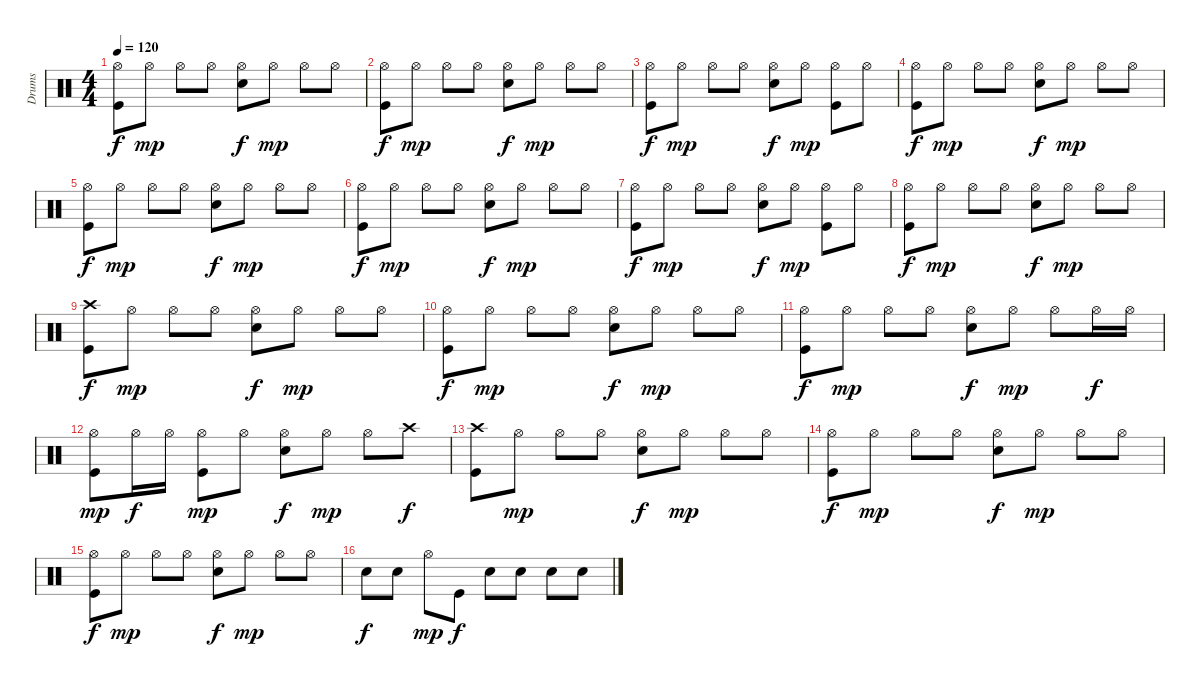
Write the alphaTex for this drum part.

\track ("Drums" "Drums") {instrument percussion}
\staff {score}
\articulation defaults
\ts (4 4)
\tempo 120
\clef neutral
\ks c
("Hi-Hat (open)" "Kick (hit)").8{dy f} "Hi-Hat (open)".8{dy mp} "Hi-Hat (open)".8 "Hi-Hat (open)".8 ("Hi-Hat (open)" "Snare (hit) 2").8{dy f} "Hi-Hat (open)".8{dy mp} "Hi-Hat (open)".8 "Hi-Hat (open)".8 |
("Hi-Hat (open)" "Kick (hit)").8{dy f} "Hi-Hat (open)".8{dy mp} "Hi-Hat (open)".8 "Hi-Hat (open)".8 ("Hi-Hat (open)" "Snare (hit) 2").8{dy f} "Hi-Hat (open)".8{dy mp} "Hi-Hat (open)".8 "Hi-Hat (open)".8 |
("Kick (hit)" "Hi-Hat (open)").8{dy f} "Hi-Hat (open)".8{dy mp} "Hi-Hat (open)".8 "Hi-Hat (open)".8 ("Hi-Hat (open)" "Snare (hit) 2").8{dy f} "Hi-Hat (open)".8{dy mp} ("Hi-Hat (open)" "Kick (hit)").8 "Hi-Hat (open)".8 |
("Kick (hit)" "Hi-Hat (open)").8{dy f} "Hi-Hat (open)".8{dy mp} "Hi-Hat (open)".8 "Hi-Hat (open)".8 ("Hi-Hat (open)" "Snare (hit) 2").8{dy f} "Hi-Hat (open)".8{dy mp} "Hi-Hat (open)".8 "Hi-Hat (open)".8 |
("Kick (hit)" "Hi-Hat (open)").8{dy f} "Hi-Hat (open)".8{dy mp} "Hi-Hat (open)".8 "Hi-Hat (open)".8 ("Hi-Hat (open)" "Snare (hit) 2").8{dy f} "Hi-Hat (open)".8{dy mp} "Hi-Hat (open)".8 "Hi-Hat (open)".8 |
("Kick (hit)" "Hi-Hat (open)").8{dy f} "Hi-Hat (open)".8{dy mp} "Hi-Hat (open)".8 "Hi-Hat (open)".8 ("Hi-Hat (open)" "Snare (hit) 2").8{dy f} "Hi-Hat (open)".8{dy mp} "Hi-Hat (open)".8 "Hi-Hat (open)".8 |
("Kick (hit)" "Hi-Hat (open)").8{dy f} "Hi-Hat (open)".8{dy mp} "Hi-Hat (open)".8 "Hi-Hat (open)".8 ("Hi-Hat (open)" "Snare (hit) 2").8{dy f} "Hi-Hat (open)".8{dy mp} ("Hi-Hat (open)" "Kick (hit)").8 "Hi-Hat (open)".8 |
("Kick (hit)" "Hi-Hat (open)").8{dy f} "Hi-Hat (open)".8{dy mp} "Hi-Hat (open)".8 "Hi-Hat (open)".8 ("Hi-Hat (open)" "Snare (hit) 2").8{dy f} "Hi-Hat (open)".8{dy mp} "Hi-Hat (open)".8 "Hi-Hat (open)".8 |
("Kick (hit)" "Crash high (hit)").8{dy f} "Hi-Hat (open)".8{dy mp} "Hi-Hat (open)".8 "Hi-Hat (open)".8 ("Hi-Hat (open)" "Snare (hit) 2").8{dy f} "Hi-Hat (open)".8{dy mp} "Hi-Hat (open)".8 "Hi-Hat (open)".8 |
("Kick (hit)" "Hi-Hat (open)").8{dy f} "Hi-Hat (open)".8{dy mp} "Hi-Hat (open)".8 "Hi-Hat (open)".8 ("Hi-Hat (open)" "Snare (hit) 2").8{dy f} "Hi-Hat (open)".8{dy mp} "Hi-Hat (open)".8 "Hi-Hat (open)".8 |
("Kick (hit)" "Hi-Hat (open)").8{dy f} "Hi-Hat (open)".8{dy mp} "Hi-Hat (open)".8 "Hi-Hat (open)".8 ("Hi-Hat (open)" "Snare (hit) 2").8{dy f} "Hi-Hat (open)".8{dy mp} "Hi-Hat (open)".8 "Hi-Hat (open)".16{dy f} "Hi-Hat (open)".16 |
("Kick (hit)" "Hi-Hat (open)").8{dy mp} "Hi-Hat (open)".16{dy f} "Hi-Hat (open)".16 ("Kick (hit)" "Hi-Hat (open)").8{dy mp} "Hi-Hat (open)".8 ("Hi-Hat (open)" "Snare (hit) 2").8{dy f} "Hi-Hat (open)".8{dy mp} "Hi-Hat (open)".8 "Crash high (hit)".8{dy f} |
("Kick (hit)" "Crash high (hit)").8 "Hi-Hat (open)".8{dy mp} "Hi-Hat (open)".8 "Hi-Hat (open)".8 ("Hi-Hat (open)" "Snare (hit) 2").8{dy f} "Hi-Hat (open)".8{dy mp} "Hi-Hat (open)".8 "Hi-Hat (open)".8 |
("Kick (hit)" "Hi-Hat (open)").8{dy f} "Hi-Hat (open)".8{dy mp} "Hi-Hat (open)".8 "Hi-Hat (open)".8 ("Hi-Hat (open)" "Snare (hit) 2").8{dy f} "Hi-Hat (open)".8{dy mp} "Hi-Hat (open)".8 "Hi-Hat (open)".8 |
("Kick (hit)" "Hi-Hat (open)").8{dy f} "Hi-Hat (open)".8{dy mp} "Hi-Hat (open)".8 "Hi-Hat (open)".8 ("Hi-Hat (open)" "Snare (hit) 2").8{dy f} "Hi-Hat (open)".8{dy mp} "Hi-Hat (open)".8 "Hi-Hat (open)".8 |
"Snare (hit) 2".8{dy f} "Snare (hit) 2".8 "Hi-Hat (open)".8{dy mp} "Kick (hit)".8{dy f} "Snare (hit) 2".8 "Snare (hit) 2".8 "Snare (hit) 2".8 "Snare (hit) 2".8
